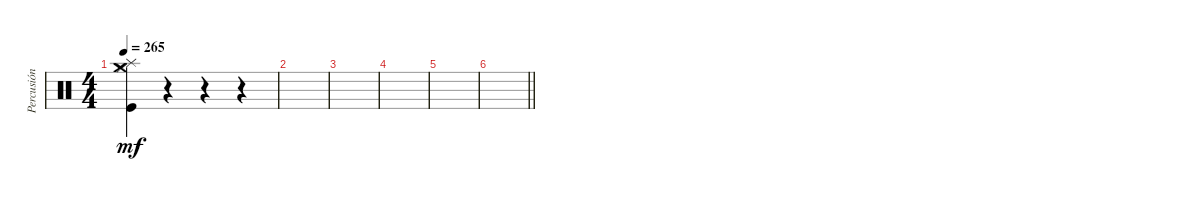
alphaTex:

\track ("Percusión" "Percusión") {instrument percussion}
\staff {score}
\articulation defaults
\ts (4 4)
\tempo 265
\clef neutral
\ks c
("Splash (hit)" "Crash medium (hit)" "Hi-Hat (closed)" "Kick (hit)").4{dy mf} r.4 r.4 r.4 |
|
|
|
|
\barLineRight lightlight
